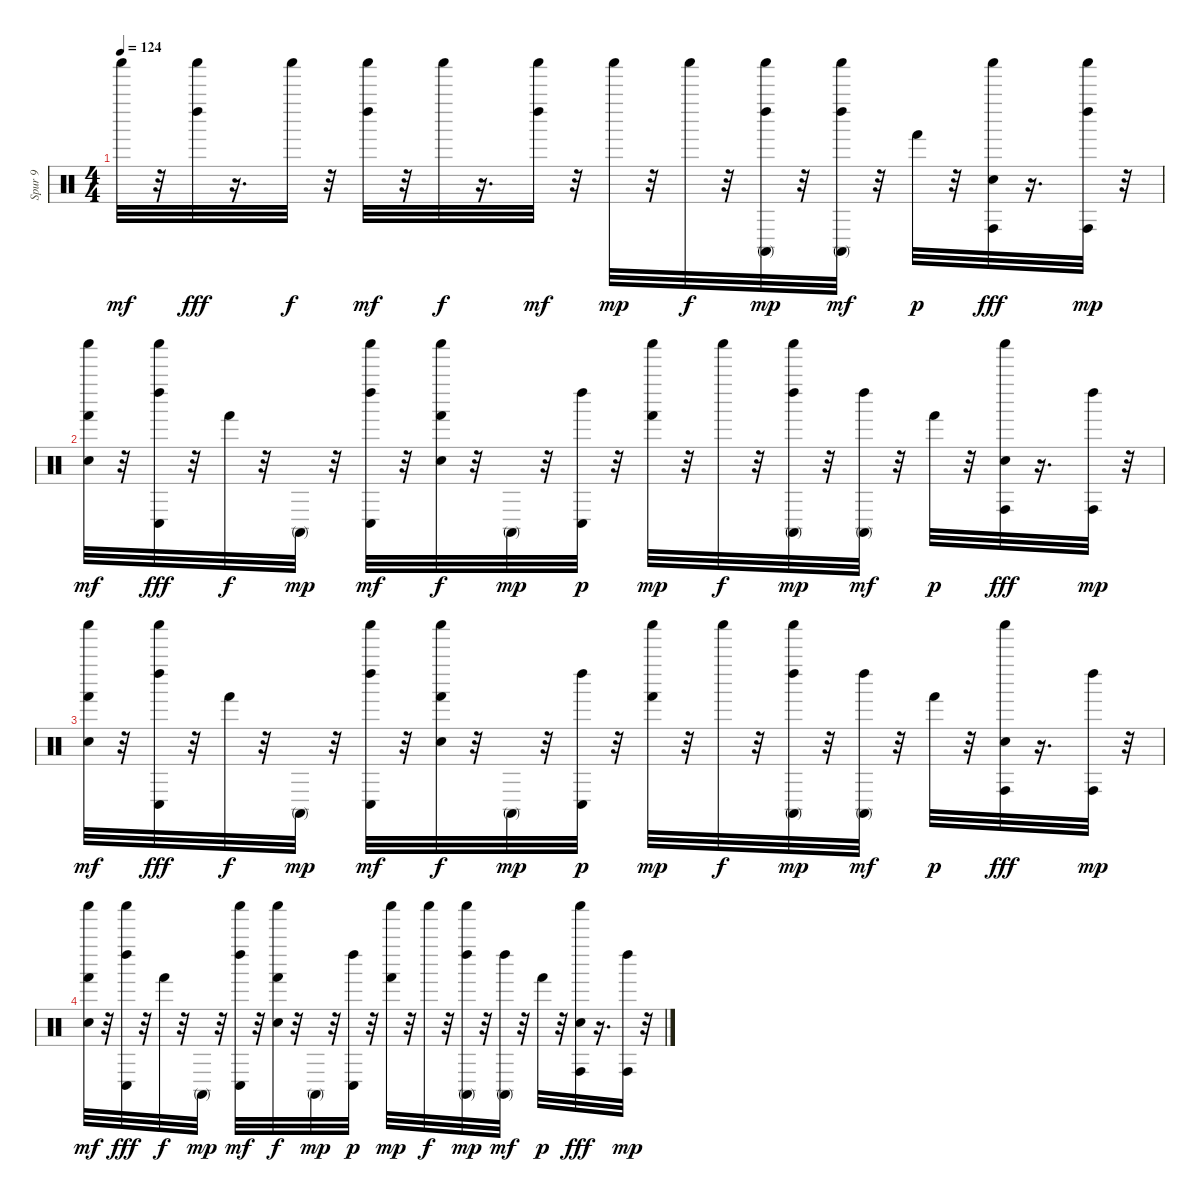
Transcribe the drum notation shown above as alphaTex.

\track ("Spur 9" "Spur 9") {instrument percussion}
\staff {score}
\articulation defaults
\ts (4 4)
\tempo 124
\clef neutral
\ks c "Shaker (hit)".32{dy mf}
r.32 ("Left Maraca (hit)" "Shaker (hit)").32{dy fff} r.16{d} "Shaker (hit)".32{dy f} r.32 ("Left Maraca (hit)" "Shaker (hit)").32{dy mf} r.32 "Shaker (hit)".32{dy f} r.16{d} ("Left Maraca (hit)" "Shaker (hit)").32{dy mf} r.32 "Shaker (hit)".32{dy mp} r.32 "Shaker (hit)".32{dy f} r.32 ("Conga high (mute)" "Left Maraca (hit)" "Shaker (hit)").32{dy mp} r.32 ("Conga high (mute)" "Left Maraca (hit)" "Shaker (hit)").32{dy mf} r.32 "Hand (hit)".32{dy p} r.32 ("Electric Snare (hit)" "Conga high (hit)" "Shaker (hit)").32{dy fff} r.16{d} ("Conga high (hit)" "Left Maraca (hit)" "Shaker (hit)").32{dy mp} r.32 |
("Electric Snare (hit)" "Hand (hit)" "Shaker (hit)").32{dy mf} r.32 ("Conga low (hit)" "Left Maraca (hit)" "Shaker (hit)").32{dy fff} r.32 "Hand (hit)".32{dy f} r.32 "Conga high (mute)".32{dy mp} r.32 ("Conga low (hit)" "Left Maraca (hit)" "Shaker (hit)").32{dy mf} r.32 ("Electric Snare (hit)" "Hand (hit)" "Shaker (hit)").32{dy f} r.32 "Conga high (mute)".32{dy mp} r.32 ("Conga low (hit)" "Left Maraca (hit)").32{dy p} r.32 ("Hand (hit)" "Shaker (hit)").32{dy mp} r.32 "Shaker (hit)".32{dy f} r.32 ("Conga high (mute)" "Left Maraca (hit)" "Shaker (hit)").32{dy mp} r.32 ("Conga high (mute)" "Left Maraca (hit)").32{dy mf} r.32 "Hand (hit)".32{dy p} r.32 ("Electric Snare (hit)" "Conga high (hit)" "Shaker (hit)").32{dy fff} r.16{d} ("Conga high (hit)" "Left Maraca (hit)").32{dy mp} r.32 |
("Electric Snare (hit)" "Hand (hit)" "Shaker (hit)").32{dy mf} r.32 ("Conga low (hit)" "Left Maraca (hit)" "Shaker (hit)").32{dy fff} r.32 "Hand (hit)".32{dy f} r.32 "Conga high (mute)".32{dy mp} r.32 ("Conga low (hit)" "Left Maraca (hit)" "Shaker (hit)").32{dy mf} r.32 ("Electric Snare (hit)" "Hand (hit)" "Shaker (hit)").32{dy f} r.32 "Conga high (mute)".32{dy mp} r.32 ("Conga low (hit)" "Left Maraca (hit)").32{dy p} r.32 ("Hand (hit)" "Shaker (hit)").32{dy mp} r.32 "Shaker (hit)".32{dy f} r.32 ("Conga high (mute)" "Left Maraca (hit)" "Shaker (hit)").32{dy mp} r.32 ("Conga high (mute)" "Left Maraca (hit)").32{dy mf} r.32 "Hand (hit)".32{dy p} r.32 ("Electric Snare (hit)" "Conga high (hit)" "Shaker (hit)").32{dy fff} r.16{d} ("Conga high (hit)" "Left Maraca (hit)").32{dy mp} r.32 |
("Electric Snare (hit)" "Hand (hit)" "Shaker (hit)").32{dy mf} r.32 ("Conga low (hit)" "Left Maraca (hit)" "Shaker (hit)").32{dy fff} r.32 "Hand (hit)".32{dy f} r.32 "Conga high (mute)".32{dy mp} r.32 ("Conga low (hit)" "Left Maraca (hit)" "Shaker (hit)").32{dy mf} r.32 ("Electric Snare (hit)" "Hand (hit)" "Shaker (hit)").32{dy f} r.32 "Conga high (mute)".32{dy mp} r.32 ("Conga low (hit)" "Left Maraca (hit)").32{dy p} r.32 ("Hand (hit)" "Shaker (hit)").32{dy mp} r.32 "Shaker (hit)".32{dy f} r.32 ("Conga high (mute)" "Left Maraca (hit)" "Shaker (hit)").32{dy mp} r.32 ("Conga high (mute)" "Left Maraca (hit)").32{dy mf} r.32 "Hand (hit)".32{dy p} r.32 ("Electric Snare (hit)" "Conga high (hit)" "Shaker (hit)").32{dy fff} r.16{d} ("Conga high (hit)" "Left Maraca (hit)").32{dy mp} r.32
